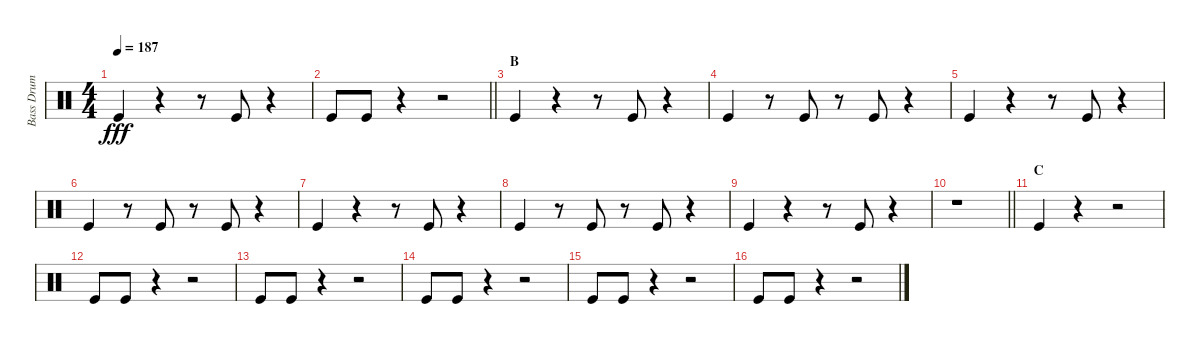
\track ("Bass Drum" "Bass Drum") {instrument percussion}
\staff {score}
\articulation defaults
\ts (4 4)
\tempo 187
\clef neutral
\ks c "Kick (hit)".4{dy fff}
r.4 r.8 "Kick (hit)".8 r.4 |
\barLineRight lightlight "Kick (hit)".8 "Kick (hit)".8
r.4 r.2 |
\section ("" "B")
"Kick (hit)".4 r.4 r.8 "Kick (hit)".8 r.4 |
"Kick (hit)".4 r.8 "Kick (hit)".8 r.8 "Kick (hit)".8 r.4 |
"Kick (hit)".4 r.4 r.8 "Kick (hit)".8 r.4 |
"Kick (hit)".4 r.8 "Kick (hit)".8 r.8 "Kick (hit)".8 r.4 |
"Kick (hit)".4 r.4 r.8 "Kick (hit)".8 r.4 |
"Kick (hit)".4 r.8 "Kick (hit)".8 r.8 "Kick (hit)".8 r.4 |
"Kick (hit)".4 r.4 r.8 "Kick (hit)".8 r.4 |
\barLineRight lightlight
r.1 |
\section ("" "C")
"Kick (hit)".4 r.4 r.2 |
"Kick (hit)".8 "Kick (hit)".8 r.4 r.2 |
"Kick (hit)".8 "Kick (hit)".8 r.4 r.2 |
"Kick (hit)".8 "Kick (hit)".8 r.4 r.2 |
"Kick (hit)".8 "Kick (hit)".8 r.4 r.2 |
"Kick (hit)".8 "Kick (hit)".8 r.4 r.2
